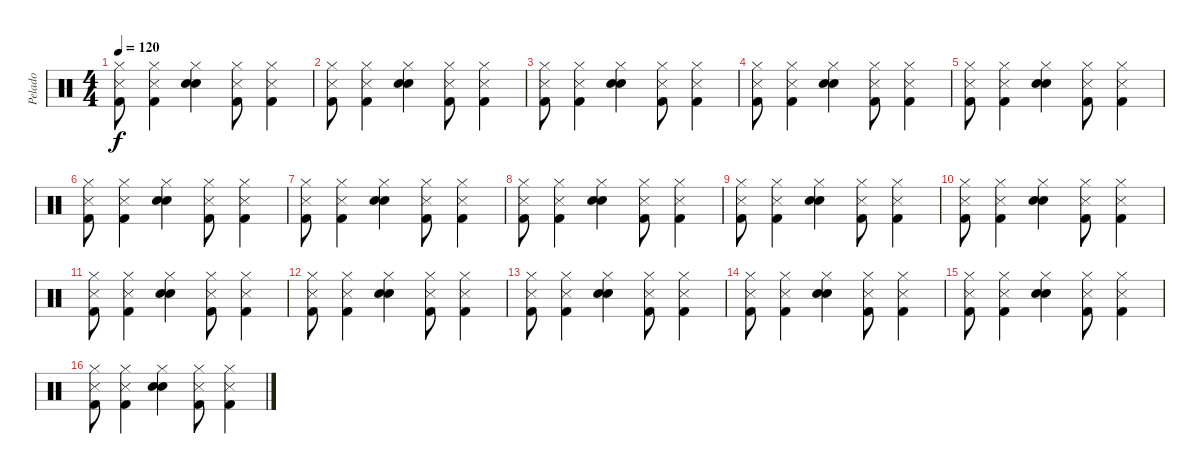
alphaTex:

\track ("Pelado" "Pelado") {instrument percussion}
\staff {score}
\articulation defaults
\ts (4 4)
\tempo 120
\clef neutral
\ks c
("Hi-Hat (closed)" "Snare (side stick) 3" "Kick (hit) 2").8{dy f} ("Hi-Hat (closed)" "Snare (side stick) 3" "Kick (hit) 2").4 ("Hi-Hat (closed)" "Hand Clap (hit)" "Hand Clap (hit)").4 ("Hi-Hat (closed)" "Snare (side stick) 3" "Kick (hit) 2").8 ("Hi-Hat (closed)" "Snare (side stick) 3" "Kick (hit) 2").4 |
("Hi-Hat (closed)" "Snare (side stick) 3" "Kick (hit) 2").8 ("Hi-Hat (closed)" "Snare (side stick) 3" "Kick (hit) 2").4 ("Hi-Hat (closed)" "Hand Clap (hit)" "Hand Clap (hit)").4 ("Hi-Hat (closed)" "Snare (side stick) 3" "Kick (hit) 2").8 ("Hi-Hat (closed)" "Snare (side stick) 3" "Kick (hit) 2").4 |
("Hi-Hat (closed)" "Snare (side stick) 3" "Kick (hit) 2").8 ("Hi-Hat (closed)" "Snare (side stick) 3" "Kick (hit) 2").4 ("Hi-Hat (closed)" "Hand Clap (hit)" "Hand Clap (hit)").4 ("Hi-Hat (closed)" "Snare (side stick) 3" "Kick (hit) 2").8 ("Hi-Hat (closed)" "Snare (side stick) 3" "Kick (hit) 2").4 |
("Hi-Hat (closed)" "Snare (side stick) 3" "Kick (hit) 2").8 ("Hi-Hat (closed)" "Snare (side stick) 3" "Kick (hit) 2").4 ("Hi-Hat (closed)" "Hand Clap (hit)" "Hand Clap (hit)").4 ("Hi-Hat (closed)" "Snare (side stick) 3" "Kick (hit) 2").8 ("Hi-Hat (closed)" "Snare (side stick) 3" "Kick (hit) 2").4 |
("Hi-Hat (closed)" "Snare (side stick) 3" "Kick (hit) 2").8 ("Hi-Hat (closed)" "Snare (side stick) 3" "Kick (hit) 2").4 ("Hi-Hat (closed)" "Hand Clap (hit)" "Hand Clap (hit)").4 ("Hi-Hat (closed)" "Snare (side stick) 3" "Kick (hit) 2").8 ("Hi-Hat (closed)" "Snare (side stick) 3" "Kick (hit) 2").4 |
("Hi-Hat (closed)" "Snare (side stick) 3" "Kick (hit) 2").8 ("Hi-Hat (closed)" "Snare (side stick) 3" "Kick (hit) 2").4 ("Hi-Hat (closed)" "Hand Clap (hit)" "Hand Clap (hit)").4 ("Hi-Hat (closed)" "Snare (side stick) 3" "Kick (hit) 2").8 ("Hi-Hat (closed)" "Snare (side stick) 3" "Kick (hit) 2").4 |
("Hi-Hat (closed)" "Snare (side stick) 3" "Kick (hit) 2").8 ("Hi-Hat (closed)" "Snare (side stick) 3" "Kick (hit) 2").4 ("Hi-Hat (closed)" "Hand Clap (hit)" "Hand Clap (hit)").4 ("Hi-Hat (closed)" "Snare (side stick) 3" "Kick (hit) 2").8 ("Hi-Hat (closed)" "Snare (side stick) 3" "Kick (hit) 2").4 |
("Hi-Hat (closed)" "Snare (side stick) 3" "Kick (hit) 2").8 ("Hi-Hat (closed)" "Snare (side stick) 3" "Kick (hit) 2").4 ("Hi-Hat (closed)" "Hand Clap (hit)" "Hand Clap (hit)").4 ("Hi-Hat (closed)" "Snare (side stick) 3" "Kick (hit) 2").8 ("Hi-Hat (closed)" "Snare (side stick) 3" "Kick (hit) 2").4 |
("Hi-Hat (closed)" "Snare (side stick) 3" "Kick (hit) 2").8 ("Hi-Hat (closed)" "Snare (side stick) 3" "Kick (hit) 2").4 ("Hi-Hat (closed)" "Hand Clap (hit)" "Hand Clap (hit)").4 ("Hi-Hat (closed)" "Snare (side stick) 3" "Kick (hit) 2").8 ("Hi-Hat (closed)" "Snare (side stick) 3" "Kick (hit) 2").4 |
("Hi-Hat (closed)" "Snare (side stick) 3" "Kick (hit) 2").8 ("Hi-Hat (closed)" "Snare (side stick) 3" "Kick (hit) 2").4 ("Hi-Hat (closed)" "Hand Clap (hit)" "Hand Clap (hit)").4 ("Hi-Hat (closed)" "Snare (side stick) 3" "Kick (hit) 2").8 ("Hi-Hat (closed)" "Snare (side stick) 3" "Kick (hit) 2").4 |
("Hi-Hat (closed)" "Snare (side stick) 3" "Kick (hit) 2").8 ("Hi-Hat (closed)" "Snare (side stick) 3" "Kick (hit) 2").4 ("Hi-Hat (closed)" "Hand Clap (hit)" "Hand Clap (hit)").4 ("Hi-Hat (closed)" "Snare (side stick) 3" "Kick (hit) 2").8 ("Hi-Hat (closed)" "Snare (side stick) 3" "Kick (hit) 2").4 |
("Hi-Hat (closed)" "Snare (side stick) 3" "Kick (hit) 2").8 ("Hi-Hat (closed)" "Snare (side stick) 3" "Kick (hit) 2").4 ("Hi-Hat (closed)" "Hand Clap (hit)" "Hand Clap (hit)").4 ("Hi-Hat (closed)" "Snare (side stick) 3" "Kick (hit) 2").8 ("Hi-Hat (closed)" "Snare (side stick) 3" "Kick (hit) 2").4 |
("Hi-Hat (closed)" "Snare (side stick) 3" "Kick (hit) 2").8 ("Hi-Hat (closed)" "Snare (side stick) 3" "Kick (hit) 2").4 ("Hi-Hat (closed)" "Hand Clap (hit)" "Hand Clap (hit)").4 ("Hi-Hat (closed)" "Snare (side stick) 3" "Kick (hit) 2").8 ("Hi-Hat (closed)" "Snare (side stick) 3" "Kick (hit) 2").4 |
("Hi-Hat (closed)" "Snare (side stick) 3" "Kick (hit) 2").8 ("Hi-Hat (closed)" "Snare (side stick) 3" "Kick (hit) 2").4 ("Hi-Hat (closed)" "Hand Clap (hit)" "Hand Clap (hit)").4 ("Hi-Hat (closed)" "Snare (side stick) 3" "Kick (hit) 2").8 ("Hi-Hat (closed)" "Snare (side stick) 3" "Kick (hit) 2").4 |
("Hi-Hat (closed)" "Snare (side stick) 3" "Kick (hit) 2").8 ("Hi-Hat (closed)" "Snare (side stick) 3" "Kick (hit) 2").4 ("Hi-Hat (closed)" "Hand Clap (hit)" "Hand Clap (hit)").4 ("Hi-Hat (closed)" "Snare (side stick) 3" "Kick (hit) 2").8 ("Hi-Hat (closed)" "Snare (side stick) 3" "Kick (hit) 2").4 |
("Hi-Hat (closed)" "Snare (side stick) 3" "Kick (hit) 2").8 ("Hi-Hat (closed)" "Snare (side stick) 3" "Kick (hit) 2").4 ("Hi-Hat (closed)" "Hand Clap (hit)" "Hand Clap (hit)").4 ("Hi-Hat (closed)" "Snare (side stick) 3" "Kick (hit) 2").8 ("Hi-Hat (closed)" "Snare (side stick) 3" "Kick (hit) 2").4
